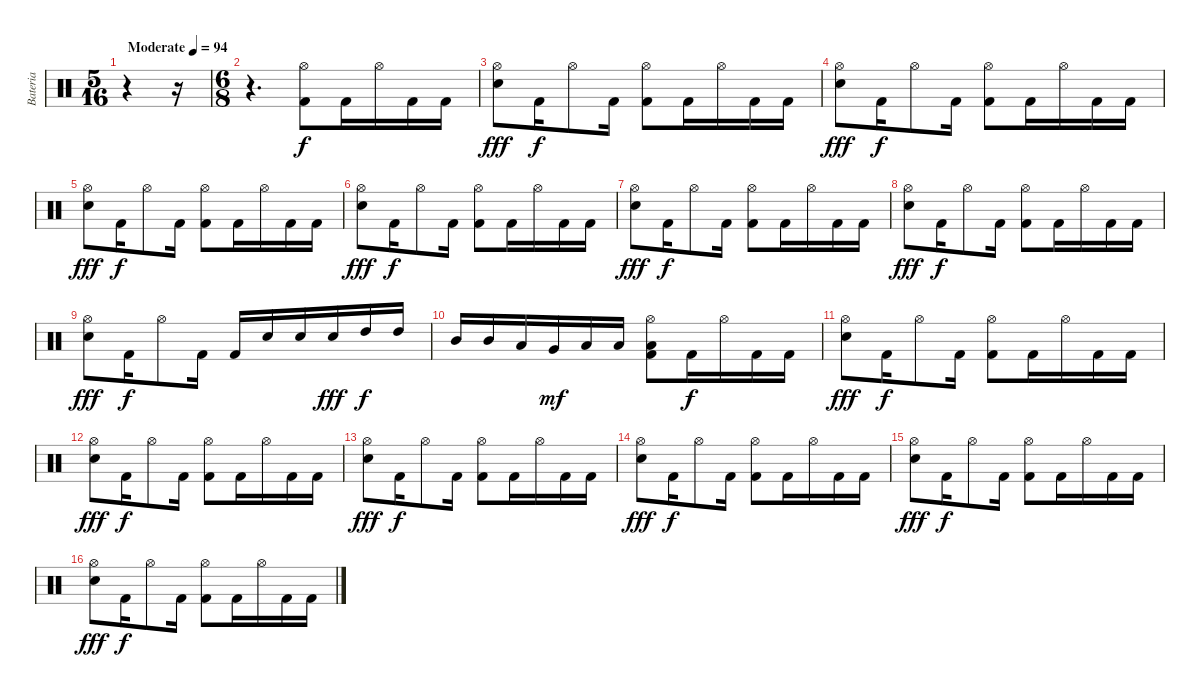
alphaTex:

\track ("Bateria" "Bateria") {instrument percussion}
\staff {score}
\articulation defaults
\ts (5 16)
\tempo (94 "Moderate")
\clef neutral
\ks c
r.4{dy f} r.16 |
\ts (6 8)
r.4{d} ("Hi-Hat (open)" "Kick (hit) 2").8 "Kick (hit) 2".16 "Hi-Hat (open)".16 "Kick (hit) 2".16 "Kick (hit) 2".16 |
("Hi-Hat (open)" "Electric Snare (hit)").8{dy fff} "Kick (hit) 2".16{dy f} "Hi-Hat (open)".8 "Kick (hit) 2".16 ("Hi-Hat (open)" "Kick (hit) 2").8 "Kick (hit) 2".16 "Hi-Hat (open)".16 "Kick (hit) 2".16 "Kick (hit) 2".16 |
("Hi-Hat (open)" "Electric Snare (hit)").8{dy fff} "Kick (hit) 2".16{dy f} "Hi-Hat (open)".8 "Kick (hit) 2".16 ("Hi-Hat (open)" "Kick (hit) 2").8 "Kick (hit) 2".16 "Hi-Hat (open)".16 "Kick (hit) 2".16 "Kick (hit) 2".16 |
("Hi-Hat (open)" "Electric Snare (hit)").8{dy fff} "Kick (hit) 2".16{dy f} "Hi-Hat (open)".8 "Kick (hit) 2".16 ("Hi-Hat (open)" "Kick (hit) 2").8 "Kick (hit) 2".16 "Hi-Hat (open)".16 "Kick (hit) 2".16 "Kick (hit) 2".16 |
("Hi-Hat (open)" "Electric Snare (hit)").8{dy fff} "Kick (hit) 2".16{dy f} "Hi-Hat (open)".8 "Kick (hit) 2".16 ("Hi-Hat (open)" "Kick (hit) 2").8 "Kick (hit) 2".16 "Hi-Hat (open)".16 "Kick (hit) 2".16 "Kick (hit) 2".16 |
("Hi-Hat (open)" "Electric Snare (hit)").8{dy fff} "Kick (hit) 2".16{dy f} "Hi-Hat (open)".8 "Kick (hit) 2".16 ("Hi-Hat (open)" "Kick (hit) 2").8 "Kick (hit) 2".16 "Hi-Hat (open)".16 "Kick (hit) 2".16 "Kick (hit) 2".16 |
("Hi-Hat (open)" "Electric Snare (hit)").8{dy fff} "Kick (hit) 2".16{dy f} "Hi-Hat (open)".8 "Kick (hit) 2".16 ("Hi-Hat (open)" "Kick (hit) 2").8 "Kick (hit) 2".16 "Hi-Hat (open)".16 "Kick (hit) 2".16 "Kick (hit) 2".16 |
("Hi-Hat (open)" "Electric Snare (hit)").8{dy fff} "Kick (hit) 2".16{dy f} "Hi-Hat (open)".8 "Kick (hit) 2".16 "Kick (hit) 2".16 "Electric Snare (hit)".16 "Electric Snare (hit)".16 "Electric Snare (hit)".16{dy fff} "High Tom (hit)".16{dy f} "High Tom (hit)".16 |
"Mid Tom (hit)".16 "Mid Tom (hit)".16 "Low Tom (hit)".16 "Very Low Tom (hit)".16{dy mf} "Low Floor Tom (hit)".16 "Low Floor Tom (hit)".16 ("Hi-Hat (open)" "Low Floor Tom (hit)" "Kick (hit) 2").8 "Kick (hit) 2".16{dy f} "Hi-Hat (open)".16 "Kick (hit) 2".16 "Kick (hit) 2".16 |
("Hi-Hat (open)" "Electric Snare (hit)").8{dy fff} "Kick (hit) 2".16{dy f} "Hi-Hat (open)".8 "Kick (hit) 2".16 ("Hi-Hat (open)" "Kick (hit) 2").8 "Kick (hit) 2".16 "Hi-Hat (open)".16 "Kick (hit) 2".16 "Kick (hit) 2".16 |
("Hi-Hat (open)" "Electric Snare (hit)").8{dy fff} "Kick (hit) 2".16{dy f} "Hi-Hat (open)".8 "Kick (hit) 2".16 ("Hi-Hat (open)" "Kick (hit) 2").8 "Kick (hit) 2".16 "Hi-Hat (open)".16 "Kick (hit) 2".16 "Kick (hit) 2".16 |
("Hi-Hat (open)" "Electric Snare (hit)").8{dy fff} "Kick (hit) 2".16{dy f} "Hi-Hat (open)".8 "Kick (hit) 2".16 ("Hi-Hat (open)" "Kick (hit) 2").8 "Kick (hit) 2".16 "Hi-Hat (open)".16 "Kick (hit) 2".16 "Kick (hit) 2".16 |
("Hi-Hat (open)" "Electric Snare (hit)").8{dy fff} "Kick (hit) 2".16{dy f} "Hi-Hat (open)".8 "Kick (hit) 2".16 ("Hi-Hat (open)" "Kick (hit) 2").8 "Kick (hit) 2".16 "Hi-Hat (open)".16 "Kick (hit) 2".16 "Kick (hit) 2".16 |
("Hi-Hat (open)" "Electric Snare (hit)").8{dy fff} "Kick (hit) 2".16{dy f} "Hi-Hat (open)".8 "Kick (hit) 2".16 ("Hi-Hat (open)" "Kick (hit) 2").8 "Kick (hit) 2".16 "Hi-Hat (open)".16 "Kick (hit) 2".16 "Kick (hit) 2".16 |
("Hi-Hat (open)" "Electric Snare (hit)").8{dy fff} "Kick (hit) 2".16{dy f} "Hi-Hat (open)".8 "Kick (hit) 2".16 ("Hi-Hat (open)" "Kick (hit) 2").8 "Kick (hit) 2".16 "Hi-Hat (open)".16 "Kick (hit) 2".16 "Kick (hit) 2".16
